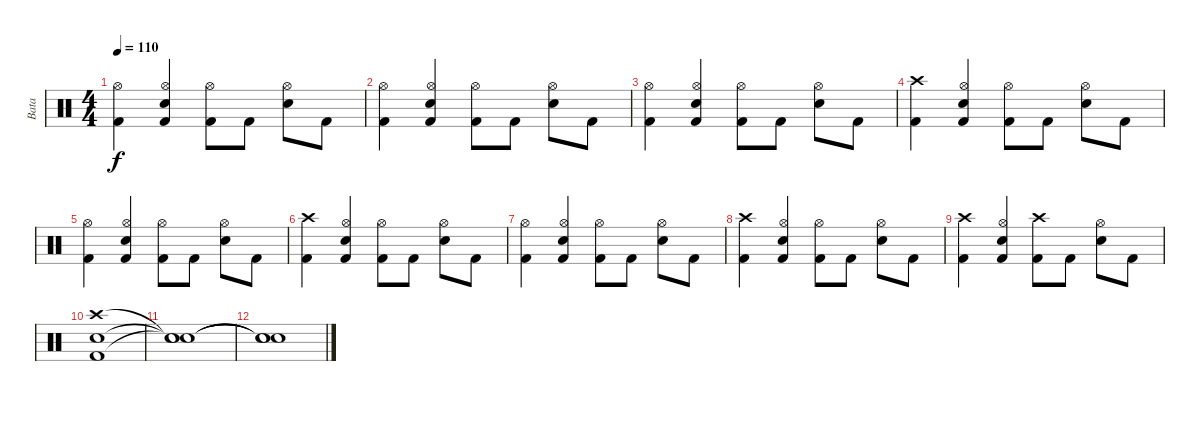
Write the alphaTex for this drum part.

\track ("Bata" "Bata") {instrument percussion}
\staff {score}
\articulation defaults
\ts (4 4)
\tempo 110
\clef neutral
\ks c
("Kick (hit) 2" "Hi-Hat (open)").4{dy f} ("Kick (hit) 2" "Snare (hit) 2" "Hi-Hat (open)").4 ("Kick (hit) 2" "Hi-Hat (open)").8 "Kick (hit) 2".8 ("Snare (hit) 2" "Hi-Hat (open)").8 "Kick (hit) 2".8 |
("Kick (hit) 2" "Hi-Hat (open)").4 ("Kick (hit) 2" "Snare (hit) 2" "Hi-Hat (open)").4 ("Kick (hit) 2" "Hi-Hat (open)").8 "Kick (hit) 2".8 ("Snare (hit) 2" "Hi-Hat (open)").8 "Kick (hit) 2".8 |
("Kick (hit) 2" "Hi-Hat (open)").4 ("Kick (hit) 2" "Snare (hit) 2" "Hi-Hat (open)").4 ("Kick (hit) 2" "Hi-Hat (open)").8 "Kick (hit) 2".8 ("Snare (hit) 2" "Hi-Hat (open)").8 "Kick (hit) 2".8 |
("Kick (hit) 2" "Crash high (hit)").4 ("Kick (hit) 2" "Snare (hit) 2" "Hi-Hat (open)").4 ("Kick (hit) 2" "Hi-Hat (open)").8 "Kick (hit) 2".8 ("Snare (hit) 2" "Hi-Hat (open)").8 "Kick (hit) 2".8 |
("Kick (hit) 2" "Hi-Hat (open)").4 ("Kick (hit) 2" "Snare (hit) 2" "Hi-Hat (open)").4 ("Kick (hit) 2" "Hi-Hat (open)").8 "Kick (hit) 2".8 ("Snare (hit) 2" "Hi-Hat (open)").8 "Kick (hit) 2".8 |
("Kick (hit) 2" "Crash high (hit)").4 ("Kick (hit) 2" "Snare (hit) 2" "Hi-Hat (open)").4 ("Kick (hit) 2" "Hi-Hat (open)").8 "Kick (hit) 2".8 ("Snare (hit) 2" "Hi-Hat (open)").8 "Kick (hit) 2".8 |
("Kick (hit) 2" "Hi-Hat (open)").4 ("Kick (hit) 2" "Snare (hit) 2" "Hi-Hat (open)").4 ("Kick (hit) 2" "Hi-Hat (open)").8 "Kick (hit) 2".8 ("Snare (hit) 2" "Hi-Hat (open)").8 "Kick (hit) 2".8 |
("Kick (hit) 2" "Crash high (hit)").4 ("Kick (hit) 2" "Snare (hit) 2" "Hi-Hat (open)").4 ("Kick (hit) 2" "Hi-Hat (open)").8 "Kick (hit) 2".8 ("Snare (hit) 2" "Hi-Hat (open)").8 "Kick (hit) 2".8 |
("Kick (hit) 2" "Crash high (hit)").4 ("Kick (hit) 2" "Snare (hit) 2" "Hi-Hat (open)").4 ("Kick (hit) 2" "Crash high (hit)").8 "Kick (hit) 2".8 ("Snare (hit) 2" "Hi-Hat (open)").8 "Kick (hit) 2".8 |
("Kick (hit) 2" "Snare (hit) 2" "Crash high (hit)").1 |
("Snare (hit)"{t} "Snare (hit)"{t} "Snare (hit)"{t}).1 |
("Snare (hit)"{t} "Snare (hit)"{t} "Snare (hit)"{t}).1
